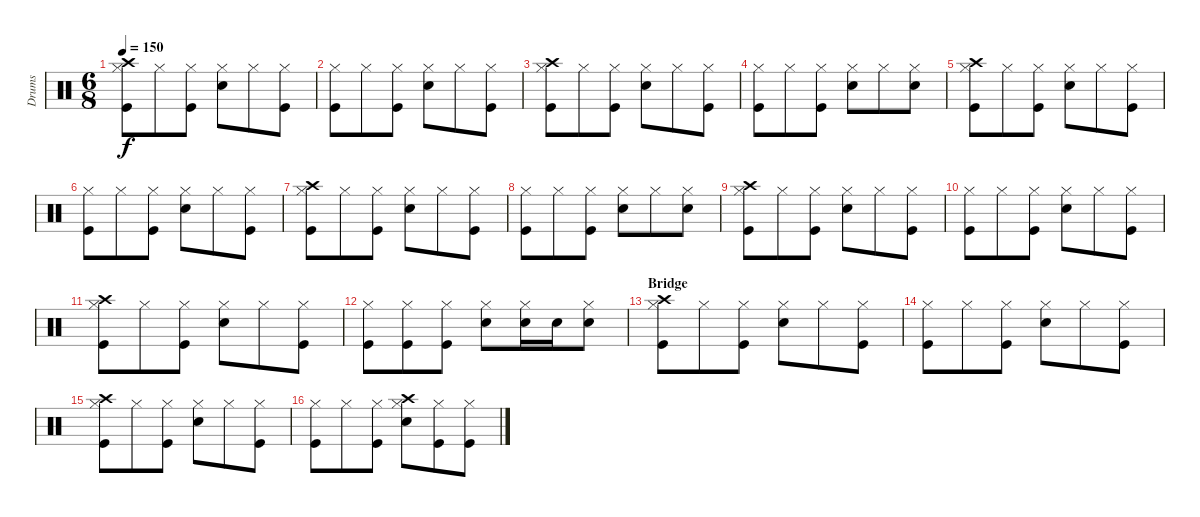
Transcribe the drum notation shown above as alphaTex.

\track ("Drums" "Drums") {instrument percussion}
\staff {score}
\articulation defaults
\ts (6 8)
\tempo 150
\clef neutral
\ks c
("Hi-Hat (closed)" "Crash high (hit)" "Kick (hit)").8{dy f} "Hi-Hat (closed)".8 ("Hi-Hat (closed)" "Kick (hit)").8 ("Hi-Hat (closed)" "Snare (hit) 2").8 "Hi-Hat (closed)".8 ("Hi-Hat (closed)" "Kick (hit)").8 |
("Hi-Hat (closed)" "Kick (hit)").8 "Hi-Hat (closed)".8 ("Hi-Hat (closed)" "Kick (hit)").8 ("Hi-Hat (closed)" "Snare (hit) 2").8 "Hi-Hat (closed)".8 ("Hi-Hat (closed)" "Kick (hit)").8 |
("Hi-Hat (closed)" "Crash high (hit)" "Kick (hit)").8 "Hi-Hat (closed)".8 ("Hi-Hat (closed)" "Kick (hit)").8 ("Hi-Hat (closed)" "Snare (hit) 2").8 "Hi-Hat (closed)".8 ("Hi-Hat (closed)" "Kick (hit)").8 |
("Hi-Hat (closed)" "Kick (hit)").8 "Hi-Hat (closed)".8 ("Hi-Hat (closed)" "Kick (hit)").8 ("Hi-Hat (closed)" "Snare (hit) 2").8 "Hi-Hat (closed)".8 ("Hi-Hat (closed)" "Snare (hit) 2").8 |
("Hi-Hat (closed)" "Crash high (hit)" "Kick (hit)").8 "Hi-Hat (closed)".8 ("Hi-Hat (closed)" "Kick (hit)").8 ("Hi-Hat (closed)" "Snare (hit) 2").8 "Hi-Hat (closed)".8 ("Hi-Hat (closed)" "Kick (hit)").8 |
("Hi-Hat (closed)" "Kick (hit)").8 "Hi-Hat (closed)".8 ("Hi-Hat (closed)" "Kick (hit)").8 ("Hi-Hat (closed)" "Snare (hit) 2").8 "Hi-Hat (closed)".8 ("Hi-Hat (closed)" "Kick (hit)").8 |
("Hi-Hat (closed)" "Crash high (hit)" "Kick (hit)").8 "Hi-Hat (closed)".8 ("Hi-Hat (closed)" "Kick (hit)").8 ("Hi-Hat (closed)" "Snare (hit) 2").8 "Hi-Hat (closed)".8 ("Hi-Hat (closed)" "Kick (hit)").8 |
("Hi-Hat (closed)" "Kick (hit)").8 "Hi-Hat (closed)".8 ("Hi-Hat (closed)" "Kick (hit)").8 ("Hi-Hat (closed)" "Snare (hit) 2").8 "Hi-Hat (closed)".8 ("Hi-Hat (closed)" "Snare (hit) 2").8 |
("Hi-Hat (closed)" "Crash high (hit)" "Kick (hit)").8 "Hi-Hat (closed)".8 ("Hi-Hat (closed)" "Kick (hit)").8 ("Hi-Hat (closed)" "Snare (hit) 2").8 "Hi-Hat (closed)".8 ("Hi-Hat (closed)" "Kick (hit)").8 |
("Hi-Hat (closed)" "Kick (hit)").8 "Hi-Hat (closed)".8 ("Hi-Hat (closed)" "Kick (hit)").8 ("Hi-Hat (closed)" "Snare (hit) 2").8 "Hi-Hat (closed)".8 ("Hi-Hat (closed)" "Kick (hit)").8 |
("Hi-Hat (closed)" "Crash high (hit)" "Kick (hit)").8 "Hi-Hat (closed)".8 ("Hi-Hat (closed)" "Kick (hit)").8 ("Hi-Hat (closed)" "Snare (hit) 2").8 "Hi-Hat (closed)".8 ("Hi-Hat (closed)" "Kick (hit)").8 |
("Hi-Hat (closed)" "Kick (hit)").8 ("Hi-Hat (closed)" "Kick (hit)").8 ("Hi-Hat (closed)" "Kick (hit)").8 ("Hi-Hat (closed)" "Snare (hit) 2").8 ("Hi-Hat (closed)" "Snare (hit) 2").16 "Snare (hit) 2".16 ("Hi-Hat (closed)" "Snare (hit) 2").8 |
\section ("" "Bridge")
("Hi-Hat (closed)" "Crash high (hit)" "Kick (hit)").8 "Hi-Hat (closed)".8 ("Hi-Hat (closed)" "Kick (hit)").8 ("Hi-Hat (closed)" "Snare (hit) 2").8 "Hi-Hat (closed)".8 ("Hi-Hat (closed)" "Kick (hit)").8 |
("Hi-Hat (closed)" "Kick (hit)").8 "Hi-Hat (closed)".8 ("Hi-Hat (closed)" "Kick (hit)").8 ("Hi-Hat (closed)" "Snare (hit) 2").8 "Hi-Hat (closed)".8 ("Hi-Hat (closed)" "Kick (hit)").8 |
("Hi-Hat (closed)" "Crash high (hit)" "Kick (hit)").8 "Hi-Hat (closed)".8 ("Hi-Hat (closed)" "Kick (hit)").8 ("Hi-Hat (closed)" "Snare (hit) 2").8 "Hi-Hat (closed)".8 ("Hi-Hat (closed)" "Kick (hit)").8 |
("Hi-Hat (closed)" "Kick (hit)").8 "Hi-Hat (closed)".8 ("Hi-Hat (closed)" "Kick (hit)").8 ("Hi-Hat (closed)" "Crash high (hit)" "Snare (hit) 2").8 ("Hi-Hat (closed)" "Kick (hit)").8 ("Hi-Hat (closed)" "Kick (hit)").8
